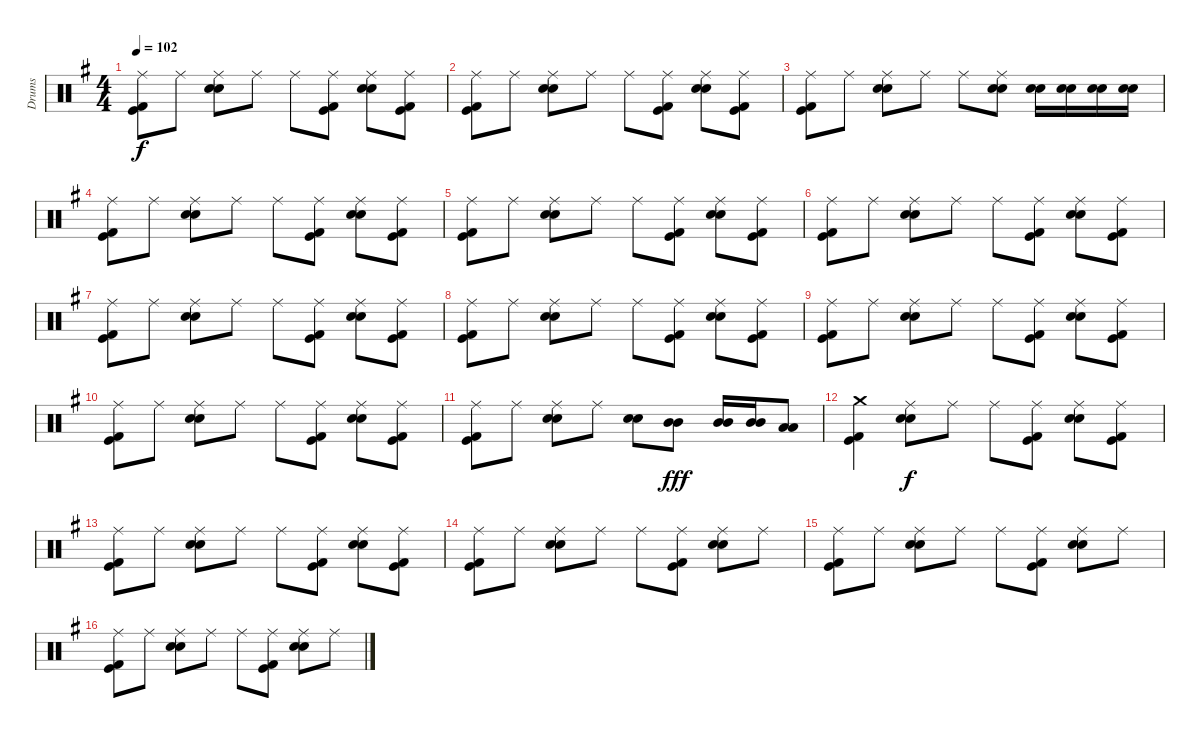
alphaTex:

\track ("Drums" "Drums") {instrument percussion}
\staff {score}
\articulation defaults
\ts (4 4)
\tempo 102
\clef neutral
\ks g
("Ride (middle)" "Kick (hit)" "Kick (hit) 2").8{dy f} "Ride (middle)".8 ("Ride (middle)" "Electric Snare (hit)" "Snare (hit) 2").8 "Ride (middle)".8 "Ride (middle)".8 ("Ride (middle)" "Kick (hit)" "Kick (hit) 2").8 ("Ride (middle)" "Electric Snare (hit)" "Snare (hit) 2").8 ("Ride (middle)" "Kick (hit)" "Kick (hit) 2").8 |
("Ride (middle)" "Kick (hit)" "Kick (hit) 2").8 "Ride (middle)".8 ("Ride (middle)" "Electric Snare (hit)" "Snare (hit) 2").8 "Ride (middle)".8 "Ride (middle)".8 ("Ride (middle)" "Kick (hit)" "Kick (hit) 2").8 ("Ride (middle)" "Electric Snare (hit)" "Snare (hit) 2").8 ("Ride (middle)" "Kick (hit)" "Kick (hit) 2").8 |
("Ride (middle)" "Kick (hit)" "Kick (hit) 2").8 "Ride (middle)".8 ("Ride (middle)" "Electric Snare (hit)" "Snare (hit) 2").8 "Ride (middle)".8 "Ride (middle)".8 ("Ride (middle)" "Electric Snare (hit)" "Snare (hit) 2").8 ("Electric Snare (hit)" "Snare (hit) 2").16 ("Electric Snare (hit)" "Snare (hit) 2").16 ("Electric Snare (hit)" "Snare (hit) 2").16 ("Electric Snare (hit)" "Snare (hit) 2").16 |
("Ride (middle)" "Kick (hit)" "Kick (hit) 2").8 "Ride (middle)".8 ("Ride (middle)" "Electric Snare (hit)" "Snare (hit) 2").8 "Ride (middle)".8 "Ride (middle)".8 ("Ride (middle)" "Kick (hit)" "Kick (hit) 2").8 ("Ride (middle)" "Electric Snare (hit)" "Snare (hit) 2").8 ("Ride (middle)" "Kick (hit)" "Kick (hit) 2").8 |
("Ride (middle)" "Kick (hit)" "Kick (hit) 2").8 "Ride (middle)".8 ("Ride (middle)" "Electric Snare (hit)" "Snare (hit) 2").8 "Ride (middle)".8 "Ride (middle)".8 ("Ride (middle)" "Kick (hit)" "Kick (hit) 2").8 ("Ride (middle)" "Electric Snare (hit)" "Snare (hit) 2").8 ("Ride (middle)" "Kick (hit)" "Kick (hit) 2").8 |
("Ride (middle)" "Kick (hit)" "Kick (hit) 2").8 "Ride (middle)".8 ("Ride (middle)" "Electric Snare (hit)" "Snare (hit) 2").8 "Ride (middle)".8 "Ride (middle)".8 ("Ride (middle)" "Kick (hit)" "Kick (hit) 2").8 ("Ride (middle)" "Electric Snare (hit)" "Snare (hit) 2").8 ("Ride (middle)" "Kick (hit)" "Kick (hit) 2").8 |
("Ride (middle)" "Kick (hit)" "Kick (hit) 2").8 "Ride (middle)".8 ("Ride (middle)" "Electric Snare (hit)" "Snare (hit) 2").8 "Ride (middle)".8 "Ride (middle)".8 ("Ride (middle)" "Kick (hit)" "Kick (hit) 2").8 ("Ride (middle)" "Electric Snare (hit)" "Snare (hit) 2").8 ("Ride (middle)" "Kick (hit)" "Kick (hit) 2").8 |
("Ride (middle)" "Kick (hit)" "Kick (hit) 2").8 "Ride (middle)".8 ("Ride (middle)" "Electric Snare (hit)" "Snare (hit) 2").8 "Ride (middle)".8 "Ride (middle)".8 ("Ride (middle)" "Kick (hit)" "Kick (hit) 2").8 ("Ride (middle)" "Electric Snare (hit)" "Snare (hit) 2").8 ("Ride (middle)" "Kick (hit)" "Kick (hit) 2").8 |
("Ride (middle)" "Kick (hit)" "Kick (hit) 2").8 "Ride (middle)".8 ("Ride (middle)" "Electric Snare (hit)" "Snare (hit) 2").8 "Ride (middle)".8 "Ride (middle)".8 ("Ride (middle)" "Kick (hit)" "Kick (hit) 2").8 ("Ride (middle)" "Electric Snare (hit)" "Snare (hit) 2").8 ("Ride (middle)" "Kick (hit)" "Kick (hit) 2").8 |
("Ride (middle)" "Kick (hit)" "Kick (hit) 2").8 "Ride (middle)".8 ("Ride (middle)" "Electric Snare (hit)" "Snare (hit) 2").8 "Ride (middle)".8 "Ride (middle)".8 ("Ride (middle)" "Kick (hit)" "Kick (hit) 2").8 ("Ride (middle)" "Electric Snare (hit)" "Snare (hit) 2").8 ("Ride (middle)" "Kick (hit)" "Kick (hit) 2").8 |
("Ride (middle)" "Kick (hit)" "Kick (hit) 2").8 "Ride (middle)".8 ("Ride (middle)" "Electric Snare (hit)" "Snare (hit) 2").8 "Ride (middle)".8 ("Electric Snare (hit)" "Snare (hit) 2").8 ("Mid Tom (hit)" "Mid Tom (hit)").8{dy fff} ("Mid Tom (hit)" "Mid Tom (hit)").16 ("Mid Tom (hit)" "Mid Tom (hit)").16 ("Low Tom (hit)" "Low Tom (hit)").8 |
("Crash medium (hit)" "Kick (hit)" "Kick (hit) 2").4 ("Ride (middle)" "Electric Snare (hit)" "Snare (hit) 2").8{dy f} "Ride (middle)".8 "Ride (middle)".8 ("Ride (middle)" "Kick (hit)" "Kick (hit) 2").8 ("Ride (middle)" "Electric Snare (hit)" "Snare (hit) 2").8 ("Ride (middle)" "Kick (hit)" "Kick (hit) 2").8 |
("Ride (middle)" "Kick (hit)" "Kick (hit) 2").8 "Ride (middle)".8 ("Ride (middle)" "Electric Snare (hit)" "Snare (hit) 2").8 "Ride (middle)".8 "Ride (middle)".8 ("Ride (middle)" "Kick (hit)" "Kick (hit) 2").8 ("Ride (middle)" "Electric Snare (hit)" "Snare (hit) 2").8 ("Ride (middle)" "Kick (hit)" "Kick (hit) 2").8 |
("Ride (middle)" "Kick (hit)" "Kick (hit) 2").8 "Ride (middle)".8 ("Ride (middle)" "Electric Snare (hit)" "Snare (hit) 2").8 "Ride (middle)".8 "Ride (middle)".8 ("Ride (middle)" "Kick (hit)" "Kick (hit) 2").8 ("Ride (middle)" "Electric Snare (hit)" "Snare (hit) 2").8 "Ride (middle)".8 |
("Ride (middle)" "Kick (hit)" "Kick (hit) 2").8 "Ride (middle)".8 ("Ride (middle)" "Electric Snare (hit)" "Snare (hit) 2").8 "Ride (middle)".8 "Ride (middle)".8 ("Ride (middle)" "Kick (hit)" "Kick (hit) 2").8 ("Ride (middle)" "Electric Snare (hit)" "Snare (hit) 2").8 "Ride (middle)".8 |
("Ride (middle)" "Kick (hit)" "Kick (hit) 2").8 "Ride (middle)".8 ("Ride (middle)" "Electric Snare (hit)" "Snare (hit) 2").8 "Ride (middle)".8 "Ride (middle)".8 ("Ride (middle)" "Kick (hit)" "Kick (hit) 2").8 ("Ride (middle)" "Electric Snare (hit)" "Snare (hit) 2").8 "Ride (middle)".8
